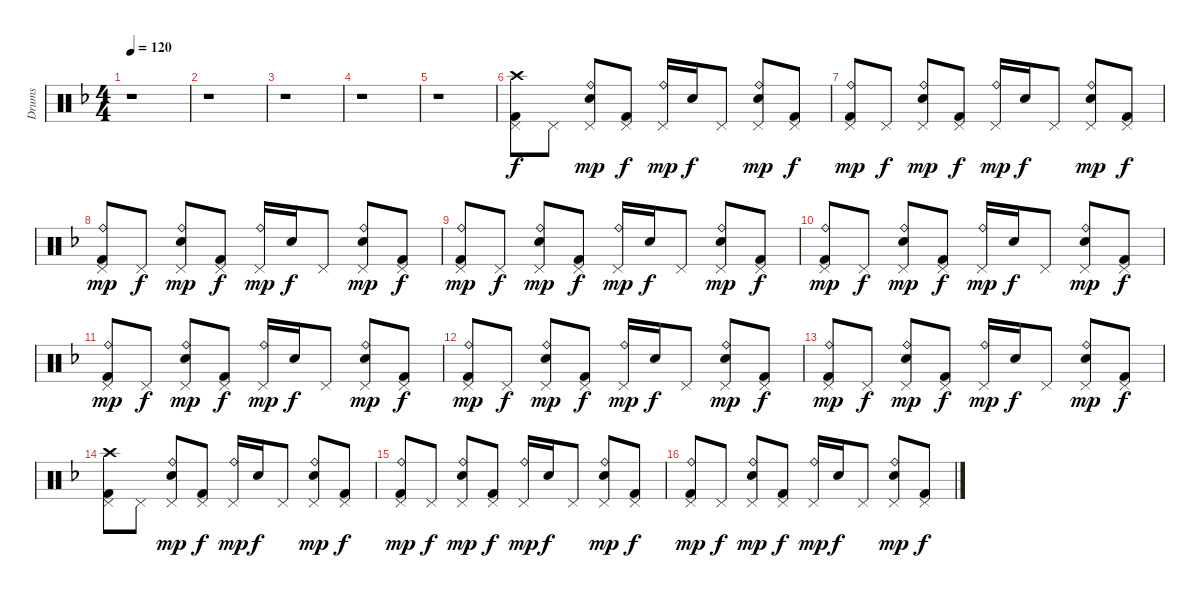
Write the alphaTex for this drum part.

\track ("Drums" "Drums") {instrument percussion}
\staff {score}
\articulation defaults
\ts (4 4)
\tempo 120
\clef neutral
\ks f
r.1{dy f} |
r.1 |
r.1 |
r.1 |
r.1 |
("Crash high (hit)" "Kick (hit) 2" "Pedal Hi-Hat (hit)").8 "Pedal Hi-Hat (hit)".8 ("Ride (bell)" "Snare (hit) 2" "Pedal Hi-Hat (hit)").8{dy mp} ("Kick (hit) 2" "Pedal Hi-Hat (hit)").8{dy f} ("Ride (bell)" "Pedal Hi-Hat (hit)").16{dy mp} "Snare (hit) 2".16{dy f} "Pedal Hi-Hat (hit)".8 ("Ride (bell)" "Snare (hit) 2" "Pedal Hi-Hat (hit)").8{dy mp} ("Kick (hit) 2" "Pedal Hi-Hat (hit)").8{dy f} |
("Ride (bell)" "Kick (hit) 2" "Pedal Hi-Hat (hit)").8{dy mp} "Pedal Hi-Hat (hit)".8{dy f} ("Ride (bell)" "Snare (hit) 2" "Pedal Hi-Hat (hit)").8{dy mp} ("Kick (hit) 2" "Pedal Hi-Hat (hit)").8{dy f} ("Ride (bell)" "Pedal Hi-Hat (hit)").16{dy mp} "Snare (hit) 2".16{dy f} "Pedal Hi-Hat (hit)".8 ("Ride (bell)" "Snare (hit) 2" "Pedal Hi-Hat (hit)").8{dy mp} ("Kick (hit) 2" "Pedal Hi-Hat (hit)").8{dy f} |
("Ride (bell)" "Kick (hit) 2" "Pedal Hi-Hat (hit)").8{dy mp} "Pedal Hi-Hat (hit)".8{dy f} ("Ride (bell)" "Snare (hit) 2" "Pedal Hi-Hat (hit)").8{dy mp} ("Kick (hit) 2" "Pedal Hi-Hat (hit)").8{dy f} ("Ride (bell)" "Pedal Hi-Hat (hit)").16{dy mp} "Snare (hit) 2".16{dy f} "Pedal Hi-Hat (hit)".8 ("Ride (bell)" "Snare (hit) 2" "Pedal Hi-Hat (hit)").8{dy mp} ("Kick (hit) 2" "Pedal Hi-Hat (hit)").8{dy f} |
("Ride (bell)" "Kick (hit) 2" "Pedal Hi-Hat (hit)").8{dy mp} "Pedal Hi-Hat (hit)".8{dy f} ("Ride (bell)" "Snare (hit) 2" "Pedal Hi-Hat (hit)").8{dy mp} ("Kick (hit) 2" "Pedal Hi-Hat (hit)").8{dy f} ("Ride (bell)" "Pedal Hi-Hat (hit)").16{dy mp} "Snare (hit) 2".16{dy f} "Pedal Hi-Hat (hit)".8 ("Ride (bell)" "Snare (hit) 2" "Pedal Hi-Hat (hit)").8{dy mp} ("Kick (hit) 2" "Pedal Hi-Hat (hit)").8{dy f} |
("Ride (bell)" "Kick (hit) 2" "Pedal Hi-Hat (hit)").8{dy mp} "Pedal Hi-Hat (hit)".8{dy f} ("Ride (bell)" "Snare (hit) 2" "Pedal Hi-Hat (hit)").8{dy mp} ("Kick (hit) 2" "Pedal Hi-Hat (hit)").8{dy f} ("Ride (bell)" "Pedal Hi-Hat (hit)").16{dy mp} "Snare (hit) 2".16{dy f} "Pedal Hi-Hat (hit)".8 ("Ride (bell)" "Snare (hit) 2" "Pedal Hi-Hat (hit)").8{dy mp} ("Kick (hit) 2" "Pedal Hi-Hat (hit)").8{dy f} |
("Ride (bell)" "Kick (hit) 2" "Pedal Hi-Hat (hit)").8{dy mp} "Pedal Hi-Hat (hit)".8{dy f} ("Ride (bell)" "Snare (hit) 2" "Pedal Hi-Hat (hit)").8{dy mp} ("Kick (hit) 2" "Pedal Hi-Hat (hit)").8{dy f} ("Ride (bell)" "Pedal Hi-Hat (hit)").16{dy mp} "Snare (hit) 2".16{dy f} "Pedal Hi-Hat (hit)".8 ("Ride (bell)" "Snare (hit) 2" "Pedal Hi-Hat (hit)").8{dy mp} ("Kick (hit) 2" "Pedal Hi-Hat (hit)").8{dy f} |
("Ride (bell)" "Kick (hit) 2" "Pedal Hi-Hat (hit)").8{dy mp} "Pedal Hi-Hat (hit)".8{dy f} ("Ride (bell)" "Snare (hit) 2" "Pedal Hi-Hat (hit)").8{dy mp} ("Kick (hit) 2" "Pedal Hi-Hat (hit)").8{dy f} ("Ride (bell)" "Pedal Hi-Hat (hit)").16{dy mp} "Snare (hit) 2".16{dy f} "Pedal Hi-Hat (hit)".8 ("Ride (bell)" "Snare (hit) 2" "Pedal Hi-Hat (hit)").8{dy mp} ("Kick (hit) 2" "Pedal Hi-Hat (hit)").8{dy f} |
("Ride (bell)" "Kick (hit) 2" "Pedal Hi-Hat (hit)").8{dy mp} "Pedal Hi-Hat (hit)".8{dy f} ("Ride (bell)" "Snare (hit) 2" "Pedal Hi-Hat (hit)").8{dy mp} ("Kick (hit) 2" "Pedal Hi-Hat (hit)").8{dy f} ("Ride (bell)" "Pedal Hi-Hat (hit)").16{dy mp} "Snare (hit) 2".16{dy f} "Pedal Hi-Hat (hit)".8 ("Ride (bell)" "Snare (hit) 2" "Pedal Hi-Hat (hit)").8{dy mp} ("Kick (hit) 2" "Pedal Hi-Hat (hit)").8{dy f} |
("Crash high (hit)" "Kick (hit) 2" "Pedal Hi-Hat (hit)").8 "Pedal Hi-Hat (hit)".8 ("Ride (bell)" "Snare (hit) 2" "Pedal Hi-Hat (hit)").8{dy mp} ("Kick (hit) 2" "Pedal Hi-Hat (hit)").8{dy f} ("Ride (bell)" "Pedal Hi-Hat (hit)").16{dy mp} "Snare (hit) 2".16{dy f} "Pedal Hi-Hat (hit)".8 ("Ride (bell)" "Snare (hit) 2" "Pedal Hi-Hat (hit)").8{dy mp} ("Kick (hit) 2" "Pedal Hi-Hat (hit)").8{dy f} |
("Ride (bell)" "Kick (hit) 2" "Pedal Hi-Hat (hit)").8{dy mp} "Pedal Hi-Hat (hit)".8{dy f} ("Ride (bell)" "Snare (hit) 2" "Pedal Hi-Hat (hit)").8{dy mp} ("Kick (hit) 2" "Pedal Hi-Hat (hit)").8{dy f} ("Ride (bell)" "Pedal Hi-Hat (hit)").16{dy mp} "Snare (hit) 2".16{dy f} "Pedal Hi-Hat (hit)".8 ("Ride (bell)" "Snare (hit) 2" "Pedal Hi-Hat (hit)").8{dy mp} ("Kick (hit) 2" "Pedal Hi-Hat (hit)").8{dy f} |
("Ride (bell)" "Kick (hit) 2" "Pedal Hi-Hat (hit)").8{dy mp} "Pedal Hi-Hat (hit)".8{dy f} ("Ride (bell)" "Snare (hit) 2" "Pedal Hi-Hat (hit)").8{dy mp} ("Kick (hit) 2" "Pedal Hi-Hat (hit)").8{dy f} ("Ride (bell)" "Pedal Hi-Hat (hit)").16{dy mp} "Snare (hit) 2".16{dy f} "Pedal Hi-Hat (hit)".8 ("Ride (bell)" "Snare (hit) 2" "Pedal Hi-Hat (hit)").8{dy mp} ("Kick (hit) 2" "Pedal Hi-Hat (hit)").8{dy f}
